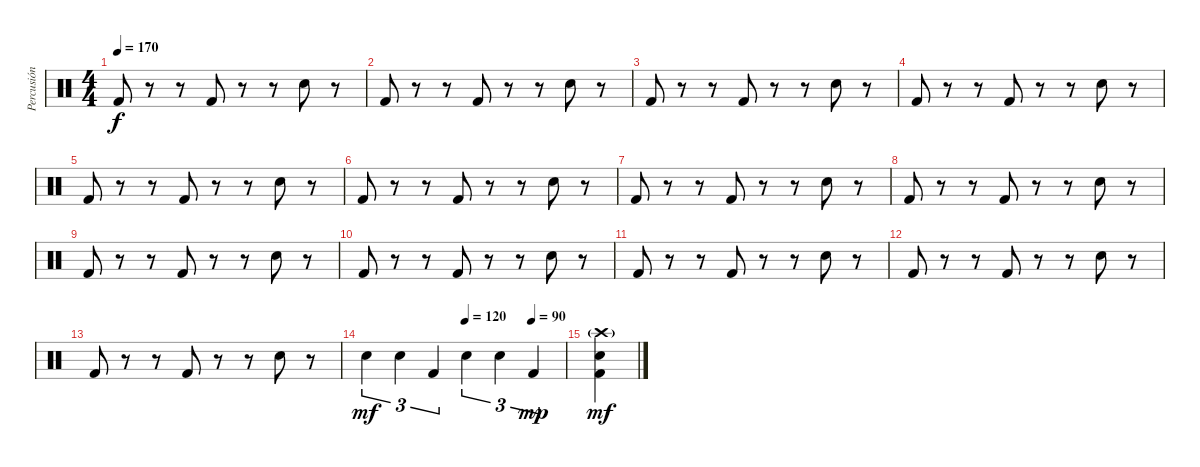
\track ("Percusión" "Percusión") {instrument percussion}
\staff {score}
\articulation defaults
\ts (4 4)
\tempo 170
\clef neutral
\ks c "Kick (hit) 2".8{dy f}
r.8 r.8 "Kick (hit) 2".8 r.8 r.8 "Electric Snare (hit)".8 r.8 |
"Kick (hit) 2".8 r.8 r.8 "Kick (hit) 2".8 r.8 r.8 "Electric Snare (hit)".8 r.8 |
"Kick (hit) 2".8 r.8 r.8 "Kick (hit) 2".8 r.8 r.8 "Electric Snare (hit)".8 r.8 |
"Kick (hit) 2".8 r.8 r.8 "Kick (hit) 2".8 r.8 r.8 "Electric Snare (hit)".8 r.8 |
"Kick (hit) 2".8 r.8 r.8 "Kick (hit) 2".8 r.8 r.8 "Electric Snare (hit)".8 r.8 |
"Kick (hit) 2".8 r.8 r.8 "Kick (hit) 2".8 r.8 r.8 "Electric Snare (hit)".8 r.8 |
"Kick (hit) 2".8 r.8 r.8 "Kick (hit) 2".8 r.8 r.8 "Electric Snare (hit)".8 r.8 |
"Kick (hit) 2".8 r.8 r.8 "Kick (hit) 2".8 r.8 r.8 "Electric Snare (hit)".8 r.8 |
"Kick (hit) 2".8 r.8 r.8 "Kick (hit) 2".8 r.8 r.8 "Electric Snare (hit)".8 r.8 |
"Kick (hit) 2".8 r.8 r.8 "Kick (hit) 2".8 r.8 r.8 "Electric Snare (hit)".8 r.8 |
"Kick (hit) 2".8 r.8 r.8 "Kick (hit) 2".8 r.8 r.8 "Electric Snare (hit)".8 r.8 |
"Kick (hit) 2".8 r.8 r.8 "Kick (hit) 2".8 r.8 r.8 "Electric Snare (hit)".8 r.8 |
"Kick (hit) 2".8 r.8 r.8 "Kick (hit) 2".8 r.8 r.8 "Electric Snare (hit)".8 r.8 |
\tempo (120 0.5)
\tempo (90 0.8333333333333334)
"Electric Snare (hit)".4{tu (3 2) dy mf} "Electric Snare (hit)".4{tu (3 2)} "Kick (hit) 2".4{tu (3 2)} "Electric Snare (hit)".4{tu (3 2)} "Electric Snare (hit)".4{tu (3 2)} "Kick (hit) 2".4{tu (3 2) dy mp} |
("Crash high (hit)"{g} "Electric Snare (hit)" "Kick (hit) 2").4{dy mf}
